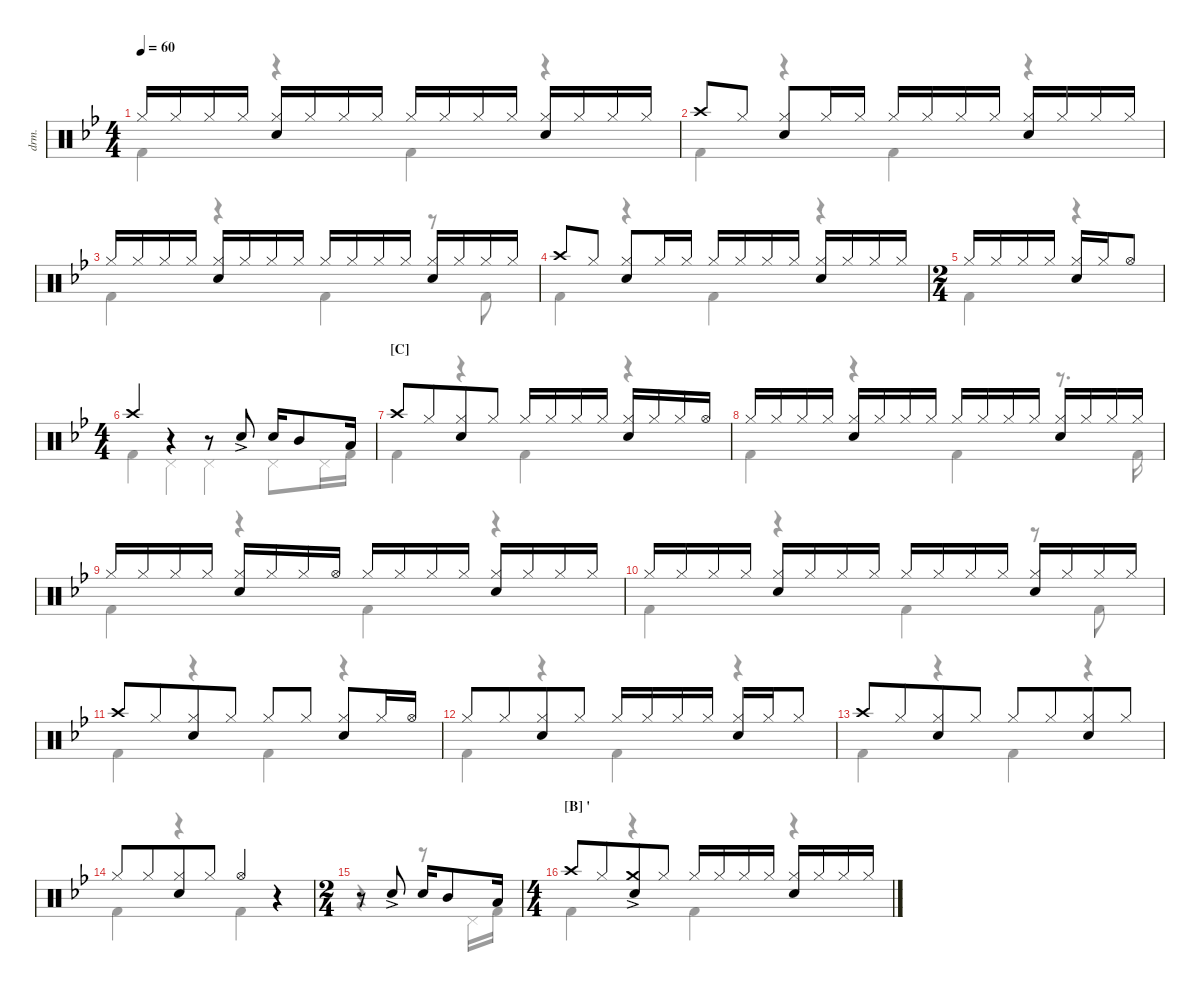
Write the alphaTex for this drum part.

\defaultSystemsLayout 4
\hideDynamics
\bracketExtendMode nobrackets
\otherSystemsTrackNameOrientation horizontal
\track ("Drumkit" "drm.") {instrument percussion}
\staff {score}
\articulation defaults
\voice
\ts (4 4)
\tempo 60
\clef neutral
\ks bb "Hi-Hat (closed)"{acc forcenatural}.16{dy mf beam Up} "Hi-Hat (closed)"{acc forcenatural}.16{dy mp beam Up} "Hi-Hat (closed)"{acc forcenatural}.16{dy mf beam Up} "Hi-Hat (closed)"{acc forcenatural}.16{dy mp beam Up}
("Hi-Hat (closed)"{acc forcenatural} "Snare (hit) 2"{acc forcenatural}).16{dy mf beam Up} "Hi-Hat (closed)"{acc forcenatural}.16{dy mp beam Up} "Hi-Hat (closed)"{acc forcenatural}.16{dy mf beam Up} "Hi-Hat (closed)"{acc forcenatural}.16{dy mp beam Up} "Hi-Hat (closed)"{acc forcenatural}.16{dy mf beam Up} "Hi-Hat (closed)"{acc forcenatural}.16{dy mp beam Up} "Hi-Hat (closed)"{acc forcenatural}.16{dy mf beam Up} "Hi-Hat (closed)"{acc forcenatural}.16{dy mp beam Up} ("Hi-Hat (closed)"{acc forcenatural} "Snare (hit) 2"{acc forcenatural}).16{dy mf beam Up} "Hi-Hat (closed)"{acc forcenatural}.16{dy mp beam Up} "Hi-Hat (closed)"{acc forcenatural}.16{dy mf beam Up} "Hi-Hat (closed)"{acc forcenatural}.16{dy mp beam Up} |
"Crash high (hit)"{acc forcenatural}.8{beam Up} "Hi-Hat (closed)"{acc forcenatural}.8{dy mf beam Up} ("Hi-Hat (closed)"{acc forcenatural} "Snare (hit) 2"{acc forcenatural}).8{beam Up} "Hi-Hat (closed)"{acc forcenatural}.16{beam Up} "Hi-Hat (closed)"{acc forcenatural}.16{dy mp beam Up} "Hi-Hat (closed)"{acc forcenatural}.16{dy mf beam Up} "Hi-Hat (closed)"{acc forcenatural}.16{dy mp beam Up} "Hi-Hat (closed)"{acc forcenatural}.16{dy mf beam Up} "Hi-Hat (closed)"{acc forcenatural}.16{dy mp beam Up} ("Hi-Hat (closed)"{acc forcenatural} "Snare (hit) 2"{acc forcenatural}).16{dy mf beam Up} "Hi-Hat (closed)"{acc forcenatural}.16{dy mp beam Up} "Hi-Hat (closed)"{acc forcenatural}.16{dy mf beam Up} "Hi-Hat (closed)"{acc forcenatural}.16{dy mp beam Up} |
"Hi-Hat (closed)"{acc forcenatural}.16{dy mf beam Up} "Hi-Hat (closed)"{acc forcenatural}.16{dy mp beam Up} "Hi-Hat (closed)"{acc forcenatural}.16{dy mf beam Up} "Hi-Hat (closed)"{acc forcenatural}.16{dy mp beam Up} ("Hi-Hat (closed)"{acc forcenatural} "Snare (hit) 2"{acc forcenatural}).16{dy mf beam Up} "Hi-Hat (closed)"{acc forcenatural}.16{dy mp beam Up} "Hi-Hat (closed)"{acc forcenatural}.16{dy mf beam Up} "Hi-Hat (closed)"{acc forcenatural}.16{dy mp beam Up} "Hi-Hat (closed)"{acc forcenatural}.16{dy mf beam Up} "Hi-Hat (closed)"{acc forcenatural}.16{dy mp beam Up} "Hi-Hat (closed)"{acc forcenatural}.16{dy mf beam Up} "Hi-Hat (closed)"{acc forcenatural}.16{dy mp beam Up} ("Hi-Hat (closed)"{acc forcenatural} "Snare (hit) 2"{acc forcenatural}).16{dy mf beam Up} "Hi-Hat (closed)"{acc forcenatural}.16{dy mp beam Up} "Hi-Hat (closed)"{acc forcenatural}.16{dy mf beam Up} "Hi-Hat (closed)"{acc forcenatural}.16{dy mp beam Up} |
"Crash high (hit)"{acc forcenatural}.8{beam Up} "Hi-Hat (closed)"{acc forcenatural}.8{dy mf beam Up} ("Hi-Hat (closed)"{acc forcenatural} "Snare (hit) 2"{acc forcenatural}).8{beam Up} "Hi-Hat (closed)"{acc forcenatural}.16{beam Up} "Hi-Hat (closed)"{acc forcenatural}.16{dy mp beam Up} "Hi-Hat (closed)"{acc forcenatural}.16{dy mf beam Up} "Hi-Hat (closed)"{acc forcenatural}.16{dy mp beam Up} "Hi-Hat (closed)"{acc forcenatural}.16{dy mf beam Up} "Hi-Hat (closed)"{acc forcenatural}.16{dy mp beam Up} ("Hi-Hat (closed)"{acc forcenatural} "Snare (hit) 2"{acc forcenatural}).16{dy mf beam Up} "Hi-Hat (closed)"{acc forcenatural}.16{dy mp beam Up} "Hi-Hat (closed)"{acc forcenatural}.16{dy mf beam Up} "Hi-Hat (closed)"{acc forcenatural}.16{dy mp beam Up} |
\ts (2 4)
"Hi-Hat (closed)"{acc forcenatural}.16{dy mf beam Up} "Hi-Hat (closed)"{acc forcenatural}.16{dy mp beam Up} "Hi-Hat (closed)"{acc forcenatural}.16{dy mf beam Up} "Hi-Hat (closed)"{acc forcenatural}.16{dy mp beam Up} ("Hi-Hat (closed)"{acc forcenatural} "Snare (hit) 2"{acc forcenatural}).16{dy mf beam Up} "Hi-Hat (closed)"{acc forcenatural}.16{dy mp beam Up} "Hi-Hat (open)"{acc forcenatural}.8{dy mf beam Up} |
\ts (4 4)
"Crash high (hit)"{acc forcenatural}.4{beam Up} r.4{beam Up} r.8{beam Up} "Snare (hit) 2"{ac acc forcenatural}.8{beam Up} "Snare (hit) 2"{acc forcenatural}.16{beam Up} "Mid Tom (hit)"{acc forcenatural}.8{beam Up} "Low Tom (hit)"{acc forcenatural}.16{dy ff beam Up} |
\section ("C" "")
"Crash high (hit)"{acc forcenatural}.8{dy mf beam Up} "Hi-Hat (closed)"{acc forcenatural}.8{beam Up beam merge} ("Snare (hit) 2"{acc forcenatural} "Hi-Hat (closed)"{acc forcenatural}).8{beam Up} "Hi-Hat (closed)"{acc forcenatural}.8{beam Up} "Hi-Hat (closed)"{acc forcenatural}.16{beam Up} "Hi-Hat (closed)"{acc forcenatural}.16{dy mp beam Up} "Hi-Hat (closed)"{acc forcenatural}.16{dy mf beam Up} "Hi-Hat (closed)"{acc forcenatural}.16{dy mp beam Up} ("Hi-Hat (closed)"{acc forcenatural} "Snare (hit) 2"{acc forcenatural}).16{dy mf beam Up} "Hi-Hat (closed)"{acc forcenatural}.16{dy mp beam Up} "Hi-Hat (closed)"{acc forcenatural}.16{dy mf beam Up} "Hi-Hat (open)"{acc forcenatural}.16{beam Up} |
"Hi-Hat (closed)"{acc forcenatural}.16{beam Up} "Hi-Hat (closed)"{acc forcenatural}.16{dy mp beam Up} "Hi-Hat (closed)"{acc forcenatural}.16{dy mf beam Up} "Hi-Hat (closed)"{acc forcenatural}.16{dy mp beam Up} ("Hi-Hat (closed)"{acc forcenatural} "Snare (hit) 2"{acc forcenatural}).16{dy mf beam Up} "Hi-Hat (closed)"{acc forcenatural}.16{dy mp beam Up} "Hi-Hat (closed)"{acc forcenatural}.16{dy mf beam Up} "Hi-Hat (closed)"{acc forcenatural}.16{dy mp beam Up} "Hi-Hat (closed)"{acc forcenatural}.16{dy mf beam Up} "Hi-Hat (closed)"{acc forcenatural}.16{dy mp beam Up} "Hi-Hat (closed)"{acc forcenatural}.16{dy mf beam Up} "Hi-Hat (closed)"{acc forcenatural}.16{dy mp beam Up} ("Hi-Hat (closed)"{acc forcenatural} "Snare (hit) 2"{acc forcenatural}).16{dy mf beam Up} "Hi-Hat (closed)"{acc forcenatural}.16{dy mp beam Up} "Hi-Hat (closed)"{acc forcenatural}.16{dy mf beam Up} "Hi-Hat (closed)"{acc forcenatural}.16{dy mp beam Up} |
"Hi-Hat (closed)"{acc forcenatural}.16{dy mf beam Up} "Hi-Hat (closed)"{acc forcenatural}.16{dy mp beam Up} "Hi-Hat (closed)"{acc forcenatural}.16{dy mf beam Up} "Hi-Hat (closed)"{acc forcenatural}.16{dy mp beam Up} ("Hi-Hat (closed)"{acc forcenatural} "Snare (hit) 2"{acc forcenatural}).16{dy mf beam Up} "Hi-Hat (closed)"{acc forcenatural}.16{dy mp beam Up} "Hi-Hat (closed)"{acc forcenatural}.16{dy mf beam Up} "Hi-Hat (open)"{acc forcenatural}.16{beam Up} "Hi-Hat (closed)"{acc forcenatural}.16{beam Up} "Hi-Hat (closed)"{acc forcenatural}.16{dy mp beam Up} "Hi-Hat (closed)"{acc forcenatural}.16{dy mf beam Up} "Hi-Hat (closed)"{acc forcenatural}.16{dy mp beam Up} ("Hi-Hat (closed)"{acc forcenatural} "Snare (hit) 2"{acc forcenatural}).16{dy mf beam Up} "Hi-Hat (closed)"{acc forcenatural}.16{dy mp beam Up} "Hi-Hat (closed)"{acc forcenatural}.16{dy mf beam Up} "Hi-Hat (closed)"{acc forcenatural}.16{dy mp beam Up} |
"Hi-Hat (closed)"{acc forcenatural}.16{dy mf beam Up} "Hi-Hat (closed)"{acc forcenatural}.16{dy mp beam Up} "Hi-Hat (closed)"{acc forcenatural}.16{dy mf beam Up} "Hi-Hat (closed)"{acc forcenatural}.16{dy mp beam Up} ("Hi-Hat (closed)"{acc forcenatural} "Snare (hit) 2"{acc forcenatural}).16{dy mf beam Up} "Hi-Hat (closed)"{acc forcenatural}.16{dy mp beam Up} "Hi-Hat (closed)"{acc forcenatural}.16{dy mf beam Up} "Hi-Hat (closed)"{acc forcenatural}.16{dy mp beam Up} "Hi-Hat (closed)"{acc forcenatural}.16{dy mf beam Up} "Hi-Hat (closed)"{acc forcenatural}.16{dy mp beam Up} "Hi-Hat (closed)"{acc forcenatural}.16{dy mf beam Up} "Hi-Hat (closed)"{acc forcenatural}.16{dy mp beam Up} ("Hi-Hat (closed)"{acc forcenatural} "Snare (hit) 2"{acc forcenatural}).16{dy mf beam Up} "Hi-Hat (closed)"{acc forcenatural}.16{dy mp beam Up} "Hi-Hat (closed)"{acc forcenatural}.16{dy mf beam Up} "Hi-Hat (closed)"{acc forcenatural}.16{dy mp beam Up} |
"Crash high (hit)"{acc forcenatural}.8{dy mf beam Up} "Hi-Hat (closed)"{acc forcenatural}.8{beam Up beam merge} ("Hi-Hat (closed)"{acc forcenatural} "Snare (hit) 2"{acc forcenatural}).8{beam Up} "Hi-Hat (closed)"{acc forcenatural}.8{beam Up} "Hi-Hat (closed)"{acc forcenatural}.8{beam Up} "Hi-Hat (closed)"{acc forcenatural}.8{beam Up} ("Hi-Hat (closed)"{acc forcenatural} "Snare (hit) 2"{acc forcenatural}).8{beam Up} "Hi-Hat (closed)"{acc forcenatural}.16{beam Up} "Hi-Hat (open)"{acc forcenatural}.16{beam Up} |
"Hi-Hat (closed)"{acc forcenatural}.8{beam Up} "Hi-Hat (closed)"{acc forcenatural}.8{beam Up beam merge} ("Hi-Hat (closed)"{acc forcenatural} "Snare (hit) 2"{acc forcenatural}).8{beam Up} "Hi-Hat (closed)"{acc forcenatural}.8{beam Up} "Hi-Hat (closed)"{acc forcenatural}.16{beam Up} "Hi-Hat (closed)"{acc forcenatural}.16{dy mp beam Up} "Hi-Hat (closed)"{acc forcenatural}.16{dy mf beam Up} "Hi-Hat (closed)"{acc forcenatural}.16{dy mp beam Up} ("Hi-Hat (closed)"{acc forcenatural} "Snare (hit) 2"{acc forcenatural}).16{dy mf beam Up} "Hi-Hat (closed)"{acc forcenatural}.16{dy mp beam Up} "Hi-Hat (closed)"{acc forcenatural}.8{dy mf beam Up} |
"Crash high (hit)"{acc forcenatural}.8{beam Up} "Hi-Hat (closed)"{acc forcenatural}.8{beam Up beam merge} ("Hi-Hat (closed)"{acc forcenatural} "Snare (hit) 2"{acc forcenatural}).8{beam Up} "Hi-Hat (closed)"{acc forcenatural}.8{beam Up} "Hi-Hat (closed)"{acc forcenatural}.8{beam Up} "Hi-Hat (closed)"{acc forcenatural}.8{beam Up beam merge} ("Hi-Hat (closed)"{acc forcenatural} "Snare (hit) 2"{acc forcenatural}).8{beam Up} "Hi-Hat (closed)"{acc forcenatural}.8{beam Up} |
"Hi-Hat (closed)"{acc forcenatural}.8{beam Up} "Hi-Hat (closed)"{acc forcenatural}.8{beam Up beam merge} ("Hi-Hat (closed)"{acc forcenatural} "Snare (hit) 2"{acc forcenatural}).8{beam Up} "Hi-Hat (closed)"{acc forcenatural}.8{beam Up} "Hi-Hat (open)"{acc forcenatural}.4{beam Up} r.4{beam Up} |
\ts (2 4)
r.8{beam Up} "Snare (hit) 2"{ac acc forcenatural}.8{beam Up} "Snare (hit) 2"{acc forcenatural}.16{beam Up} "Mid Tom (hit)"{acc forcenatural}.8{beam Up} "Low Tom (hit)"{acc forcenatural}.16{dy ff beam Up} |
\ts (4 4)
\section ("B" "'")
"Crash high (hit)"{acc forcenatural}.8{dy mf beam Up} "Hi-Hat (closed)"{acc forcenatural}.8{beam Up beam merge} ("Crash medium (hit)"{ac acc forcenatural} "Snare (hit) 2"{acc forcenatural}).8{beam Up} "Hi-Hat (closed)"{acc forcenatural}.8{beam Up} "Hi-Hat (closed)"{acc forcenatural}.16{beam Up} "Hi-Hat (closed)"{acc forcenatural}.16{dy mp beam Up} "Hi-Hat (closed)"{acc forcenatural}.16{dy mf beam Up} "Hi-Hat (closed)"{acc forcenatural}.16{dy mp beam Up} ("Hi-Hat (closed)"{acc forcenatural} "Snare (hit) 2"{acc forcenatural}).16{dy mf beam Up} "Hi-Hat (closed)"{acc forcenatural}.16{dy mp beam Up} "Hi-Hat (closed)"{acc forcenatural}.16{dy mf beam Up} "Hi-Hat (closed)"{acc forcenatural}.16{dy mp beam Up}
\voice
\clef neutral
\ottava regular
\simile none
\ks bb "Kick (hit) 2"{acc forcenatural}.4{dy mf beam Down}
r.4{beam Down} "Kick (hit) 2"{acc forcenatural}.4{beam Down} r.4{beam Down} |
"Kick (hit) 2"{acc forcenatural}.4{beam Down} r.4{beam Down} "Kick (hit) 2"{acc forcenatural}.4{beam Down} r.4{beam Down} |
"Kick (hit) 2"{acc forcenatural}.4{beam Down} r.4{beam Down} "Kick (hit) 2"{acc forcenatural}.4{beam Down} r.8{beam Down} "Kick (hit) 2"{acc forcenatural}.8{beam Down} |
"Kick (hit) 2"{acc forcenatural}.4{beam Down} r.4{beam Down} "Kick (hit) 2"{acc forcenatural}.4{beam Down} r.4{beam Down} |
"Kick (hit) 2"{acc forcenatural}.4{beam Down} r.4{beam Down} |
"Kick (hit) 2"{acc forcenatural}.4{beam Down} "Pedal Hi-Hat (hit)"{acc forcenatural}.4{beam Down} "Pedal Hi-Hat (hit)"{acc forcenatural}.4{beam Down} "Pedal Hi-Hat (hit)"{acc forcenatural}.8{beam Down} "Pedal Hi-Hat (hit)"{acc forcenatural}.16{beam Down} "Kick (hit) 2"{acc forcenatural}.16{beam Down} |
"Kick (hit) 2"{acc forcenatural}.4{beam Down} r.4{beam Down} "Kick (hit) 2"{acc forcenatural}.4{beam Down} r.4{beam Down} |
"Kick (hit) 2"{acc forcenatural}.4{beam Down} r.4{beam Down} "Kick (hit) 2"{acc forcenatural}.4{beam Down} r.8{d beam Down} "Kick (hit) 2"{acc forcenatural}.16{beam Down} |
"Kick (hit) 2"{acc forcenatural}.4{beam Down} r.4{beam Down} "Kick (hit) 2"{acc forcenatural}.4{beam Down} r.4{beam Down} |
"Kick (hit) 2"{acc forcenatural}.4{beam Down} r.4{beam Down} "Kick (hit) 2"{acc forcenatural}.4{beam Down} r.8{beam Down} "Kick (hit) 2"{acc forcenatural}.8{beam Down} |
"Kick (hit) 2"{acc forcenatural}.4{beam Down} r.4{beam Down} "Kick (hit) 2"{acc forcenatural}.4{beam Down} r.4{beam Down} |
"Kick (hit) 2"{acc forcenatural}.4{beam Down} r.4{beam Down} "Kick (hit) 2"{acc forcenatural}.4{beam Down} r.4{beam Down} |
"Kick (hit) 2"{acc forcenatural}.4{beam Down} r.4{beam Down} "Kick (hit) 2"{acc forcenatural}.4{beam Down} r.4{beam Down} |
"Kick (hit) 2"{acc forcenatural}.4{beam Down} r.4{beam Down} "Kick (hit) 2"{acc forcenatural}.4{beam Down} r.4{beam Down} |
r.4{beam Down} r.8{beam Down} "Pedal Hi-Hat (hit)"{acc forcenatural}.16{beam Down} "Kick (hit) 2"{acc forcenatural}.16{beam Down} |
"Kick (hit) 2"{acc forcenatural}.4{beam Down} r.4{beam Down} "Kick (hit) 2"{acc forcenatural}.4{beam Down} r.4{beam Down}
